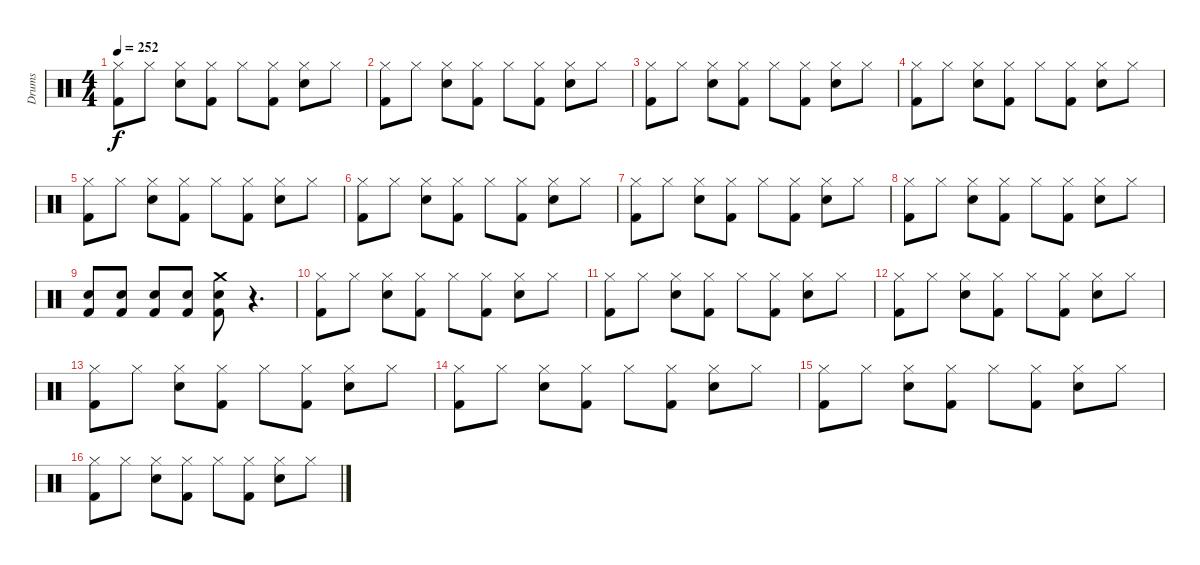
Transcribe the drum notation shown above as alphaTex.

\track ("Drums" "Drums") {instrument percussion}
\staff {score}
\articulation defaults
\ts (4 4)
\tempo 252
\clef neutral
\ks c
("Kick (hit) 2" "Hi-Hat (closed)").8{dy f} "Hi-Hat (closed)".8 ("Snare (hit) 2" "Hi-Hat (closed)").8 ("Kick (hit) 2" "Hi-Hat (closed)").8 "Hi-Hat (closed)".8 ("Kick (hit) 2" "Hi-Hat (closed)").8 ("Snare (hit) 2" "Hi-Hat (closed)").8 "Hi-Hat (closed)".8 |
("Kick (hit) 2" "Hi-Hat (closed)").8 "Hi-Hat (closed)".8 ("Snare (hit) 2" "Hi-Hat (closed)").8 ("Kick (hit) 2" "Hi-Hat (closed)").8 "Hi-Hat (closed)".8 ("Kick (hit) 2" "Hi-Hat (closed)").8 ("Snare (hit) 2" "Hi-Hat (closed)").8 "Hi-Hat (closed)".8 |
("Kick (hit) 2" "Hi-Hat (closed)").8 "Hi-Hat (closed)".8 ("Snare (hit) 2" "Hi-Hat (closed)").8 ("Kick (hit) 2" "Hi-Hat (closed)").8 "Hi-Hat (closed)".8 ("Kick (hit) 2" "Hi-Hat (closed)").8 ("Snare (hit) 2" "Hi-Hat (closed)").8 "Hi-Hat (closed)".8 |
("Kick (hit) 2" "Hi-Hat (closed)").8 "Hi-Hat (closed)".8 ("Snare (hit) 2" "Hi-Hat (closed)").8 ("Kick (hit) 2" "Hi-Hat (closed)").8 "Hi-Hat (closed)".8 ("Kick (hit) 2" "Hi-Hat (closed)").8 ("Snare (hit) 2" "Hi-Hat (closed)").8 "Hi-Hat (closed)".8 |
("Kick (hit) 2" "Hi-Hat (closed)").8 "Hi-Hat (closed)".8 ("Snare (hit) 2" "Hi-Hat (closed)").8 ("Kick (hit) 2" "Hi-Hat (closed)").8 "Hi-Hat (closed)".8 ("Kick (hit) 2" "Hi-Hat (closed)").8 ("Snare (hit) 2" "Hi-Hat (closed)").8 "Hi-Hat (closed)".8 |
("Kick (hit) 2" "Hi-Hat (closed)").8 "Hi-Hat (closed)".8 ("Snare (hit) 2" "Hi-Hat (closed)").8 ("Kick (hit) 2" "Hi-Hat (closed)").8 "Hi-Hat (closed)".8 ("Kick (hit) 2" "Hi-Hat (closed)").8 ("Snare (hit) 2" "Hi-Hat (closed)").8 "Hi-Hat (closed)".8 |
("Kick (hit) 2" "Hi-Hat (closed)").8 "Hi-Hat (closed)".8 ("Snare (hit) 2" "Hi-Hat (closed)").8 ("Kick (hit) 2" "Hi-Hat (closed)").8 "Hi-Hat (closed)".8 ("Kick (hit) 2" "Hi-Hat (closed)").8 ("Snare (hit) 2" "Hi-Hat (closed)").8 "Hi-Hat (closed)".8 |
("Kick (hit) 2" "Hi-Hat (closed)").8 "Hi-Hat (closed)".8 ("Snare (hit) 2" "Hi-Hat (closed)").8 ("Kick (hit) 2" "Hi-Hat (closed)").8 "Hi-Hat (closed)".8 ("Kick (hit) 2" "Hi-Hat (closed)").8 ("Snare (hit) 2" "Hi-Hat (closed)").8 "Hi-Hat (closed)".8 |
("Kick (hit) 2" "Snare (hit) 2").8 ("Kick (hit) 2" "Snare (hit) 2").8 ("Kick (hit) 2" "Snare (hit) 2").8 ("Kick (hit) 2" "Snare (hit) 2").8 ("Kick (hit) 2" "Snare (hit) 2" "Crash medium (hit)").8 r.4{d} |
("Kick (hit) 2" "Hi-Hat (closed)").8 "Hi-Hat (closed)".8 ("Snare (hit) 2" "Hi-Hat (closed)").8 ("Kick (hit) 2" "Hi-Hat (closed)").8 "Hi-Hat (closed)".8 ("Kick (hit) 2" "Hi-Hat (closed)").8 ("Snare (hit) 2" "Hi-Hat (closed)").8 "Hi-Hat (closed)".8 |
("Kick (hit) 2" "Hi-Hat (closed)").8 "Hi-Hat (closed)".8 ("Snare (hit) 2" "Hi-Hat (closed)").8 ("Kick (hit) 2" "Hi-Hat (closed)").8 "Hi-Hat (closed)".8 ("Kick (hit) 2" "Hi-Hat (closed)").8 ("Snare (hit) 2" "Hi-Hat (closed)").8 "Hi-Hat (closed)".8 |
("Kick (hit) 2" "Hi-Hat (closed)").8 "Hi-Hat (closed)".8 ("Snare (hit) 2" "Hi-Hat (closed)").8 ("Kick (hit) 2" "Hi-Hat (closed)").8 "Hi-Hat (closed)".8 ("Kick (hit) 2" "Hi-Hat (closed)").8 ("Snare (hit) 2" "Hi-Hat (closed)").8 "Hi-Hat (closed)".8 |
("Kick (hit) 2" "Hi-Hat (closed)").8 "Hi-Hat (closed)".8 ("Snare (hit) 2" "Hi-Hat (closed)").8 ("Kick (hit) 2" "Hi-Hat (closed)").8 "Hi-Hat (closed)".8 ("Kick (hit) 2" "Hi-Hat (closed)").8 ("Snare (hit) 2" "Hi-Hat (closed)").8 "Hi-Hat (closed)".8 |
("Kick (hit) 2" "Hi-Hat (closed)").8 "Hi-Hat (closed)".8 ("Snare (hit) 2" "Hi-Hat (closed)").8 ("Kick (hit) 2" "Hi-Hat (closed)").8 "Hi-Hat (closed)".8 ("Kick (hit) 2" "Hi-Hat (closed)").8 ("Snare (hit) 2" "Hi-Hat (closed)").8 "Hi-Hat (closed)".8 |
("Kick (hit) 2" "Hi-Hat (closed)").8 "Hi-Hat (closed)".8 ("Snare (hit) 2" "Hi-Hat (closed)").8 ("Kick (hit) 2" "Hi-Hat (closed)").8 "Hi-Hat (closed)".8 ("Kick (hit) 2" "Hi-Hat (closed)").8 ("Snare (hit) 2" "Hi-Hat (closed)").8 "Hi-Hat (closed)".8 |
("Kick (hit) 2" "Hi-Hat (closed)").8 "Hi-Hat (closed)".8 ("Snare (hit) 2" "Hi-Hat (closed)").8 ("Kick (hit) 2" "Hi-Hat (closed)").8 "Hi-Hat (closed)".8 ("Kick (hit) 2" "Hi-Hat (closed)").8 ("Snare (hit) 2" "Hi-Hat (closed)").8 "Hi-Hat (closed)".8
